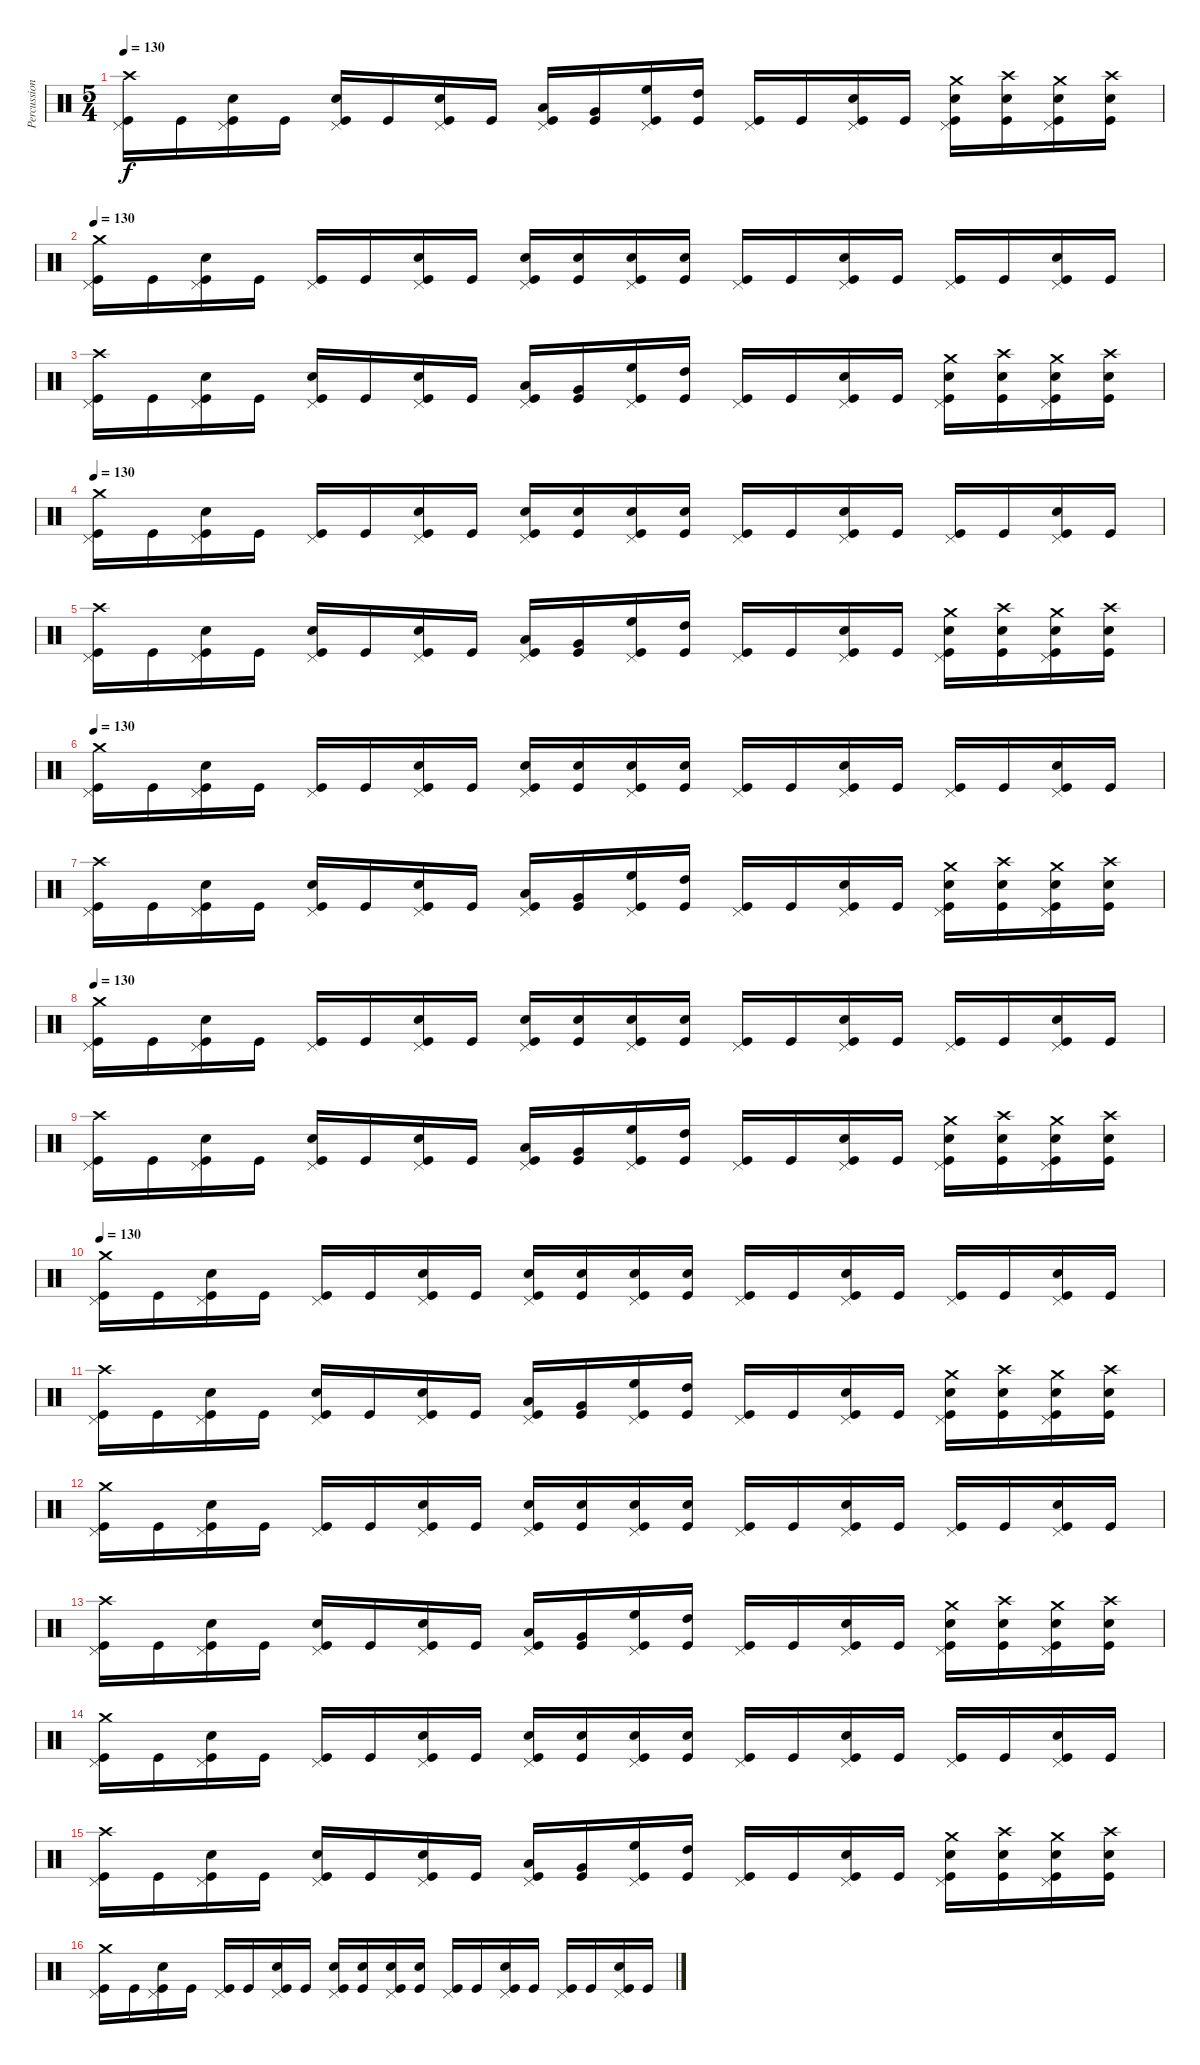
\track ("Percussion" "Percussion") {instrument percussion}
\staff {score}
\articulation defaults
\ts (5 4)
\tempo 130
\clef neutral
\ks c
("Crash high (hit)" "Pedal Hi-Hat (hit)" "Kick (hit)").16{dy f} "Kick (hit)".16 ("Snare (hit) 2" "Pedal Hi-Hat (hit)" "Kick (hit)").16 "Kick (hit)".16 ("Snare (hit) 2" "Pedal Hi-Hat (hit)" "Kick (hit)").16 "Kick (hit)".16 ("Snare (hit) 2" "Pedal Hi-Hat (hit)" "Kick (hit)").16 "Kick (hit)".16 ("Low Floor Tom (hit)" "Pedal Hi-Hat (hit)" "Kick (hit)").16 ("Very Low Tom (hit)" "Kick (hit)").16 ("High Floor Tom (hit)" "Pedal Hi-Hat (hit)" "Kick (hit)").16 ("High Tom (hit)" "Kick (hit)").16 ("Pedal Hi-Hat (hit)" "Kick (hit)").16 "Kick (hit)".16 ("Snare (hit) 2" "Pedal Hi-Hat (hit)" "Kick (hit)").16 "Kick (hit)".16 ("Crash medium (hit)" "Snare (hit) 2" "Pedal Hi-Hat (hit)" "Kick (hit)").16 ("Crash high (hit)" "Snare (hit) 2" "Kick (hit)").16 ("Crash medium (hit)" "Snare (hit) 2" "Pedal Hi-Hat (hit)" "Kick (hit)").16 ("Crash high (hit)" "Snare (hit) 2" "Kick (hit)").16 |
\tempo 130
("Pedal Hi-Hat (hit)" "Crash medium (hit)" "Kick (hit)").16 "Kick (hit)".16 ("Pedal Hi-Hat (hit)" "Snare (hit) 2" "Kick (hit)").16 "Kick (hit)".16 ("Pedal Hi-Hat (hit)" "Kick (hit)").16 "Kick (hit)".16 ("Pedal Hi-Hat (hit)" "Snare (hit) 2" "Kick (hit)").16 "Kick (hit)".16 ("Pedal Hi-Hat (hit)" "Snare (hit) 2" "Kick (hit)").16 ("Snare (hit) 2" "Kick (hit)").16 ("Pedal Hi-Hat (hit)" "Snare (hit) 2" "Kick (hit)").16 ("Snare (hit) 2" "Kick (hit)").16 ("Pedal Hi-Hat (hit)" "Kick (hit)").16 "Kick (hit)".16 ("Pedal Hi-Hat (hit)" "Snare (hit) 2" "Kick (hit)").16 "Kick (hit)".16 ("Pedal Hi-Hat (hit)" "Kick (hit)").16 "Kick (hit)".16 ("Pedal Hi-Hat (hit)" "Snare (hit) 2" "Kick (hit)").16 "Kick (hit)".16 |
("Crash high (hit)" "Pedal Hi-Hat (hit)" "Kick (hit)").16 "Kick (hit)".16 ("Snare (hit) 2" "Pedal Hi-Hat (hit)" "Kick (hit)").16 "Kick (hit)".16 ("Snare (hit) 2" "Pedal Hi-Hat (hit)" "Kick (hit)").16 "Kick (hit)".16 ("Snare (hit) 2" "Pedal Hi-Hat (hit)" "Kick (hit)").16 "Kick (hit)".16 ("Low Floor Tom (hit)" "Pedal Hi-Hat (hit)" "Kick (hit)").16 ("Very Low Tom (hit)" "Kick (hit)").16 ("High Floor Tom (hit)" "Pedal Hi-Hat (hit)" "Kick (hit)").16 ("High Tom (hit)" "Kick (hit)").16 ("Pedal Hi-Hat (hit)" "Kick (hit)").16 "Kick (hit)".16 ("Snare (hit) 2" "Pedal Hi-Hat (hit)" "Kick (hit)").16 "Kick (hit)".16 ("Crash medium (hit)" "Snare (hit) 2" "Pedal Hi-Hat (hit)" "Kick (hit)").16 ("Crash high (hit)" "Snare (hit) 2" "Kick (hit)").16 ("Crash medium (hit)" "Snare (hit) 2" "Pedal Hi-Hat (hit)" "Kick (hit)").16 ("Crash high (hit)" "Snare (hit) 2" "Kick (hit)").16 |
\tempo 130
("Pedal Hi-Hat (hit)" "Crash medium (hit)" "Kick (hit)").16 "Kick (hit)".16 ("Pedal Hi-Hat (hit)" "Snare (hit) 2" "Kick (hit)").16 "Kick (hit)".16 ("Pedal Hi-Hat (hit)" "Kick (hit)").16 "Kick (hit)".16 ("Pedal Hi-Hat (hit)" "Snare (hit) 2" "Kick (hit)").16 "Kick (hit)".16 ("Pedal Hi-Hat (hit)" "Snare (hit) 2" "Kick (hit)").16 ("Snare (hit) 2" "Kick (hit)").16 ("Pedal Hi-Hat (hit)" "Snare (hit) 2" "Kick (hit)").16 ("Snare (hit) 2" "Kick (hit)").16 ("Pedal Hi-Hat (hit)" "Kick (hit)").16 "Kick (hit)".16 ("Pedal Hi-Hat (hit)" "Snare (hit) 2" "Kick (hit)").16 "Kick (hit)".16 ("Pedal Hi-Hat (hit)" "Kick (hit)").16 "Kick (hit)".16 ("Pedal Hi-Hat (hit)" "Snare (hit) 2" "Kick (hit)").16 "Kick (hit)".16 |
("Crash high (hit)" "Pedal Hi-Hat (hit)" "Kick (hit)").16 "Kick (hit)".16 ("Snare (hit) 2" "Pedal Hi-Hat (hit)" "Kick (hit)").16 "Kick (hit)".16 ("Snare (hit) 2" "Pedal Hi-Hat (hit)" "Kick (hit)").16 "Kick (hit)".16 ("Snare (hit) 2" "Pedal Hi-Hat (hit)" "Kick (hit)").16 "Kick (hit)".16 ("Low Floor Tom (hit)" "Pedal Hi-Hat (hit)" "Kick (hit)").16 ("Very Low Tom (hit)" "Kick (hit)").16 ("High Floor Tom (hit)" "Pedal Hi-Hat (hit)" "Kick (hit)").16 ("High Tom (hit)" "Kick (hit)").16 ("Pedal Hi-Hat (hit)" "Kick (hit)").16 "Kick (hit)".16 ("Snare (hit) 2" "Pedal Hi-Hat (hit)" "Kick (hit)").16 "Kick (hit)".16 ("Crash medium (hit)" "Snare (hit) 2" "Pedal Hi-Hat (hit)" "Kick (hit)").16 ("Crash high (hit)" "Snare (hit) 2" "Kick (hit)").16 ("Crash medium (hit)" "Snare (hit) 2" "Pedal Hi-Hat (hit)" "Kick (hit)").16 ("Crash high (hit)" "Snare (hit) 2" "Kick (hit)").16 |
\tempo 130
("Pedal Hi-Hat (hit)" "Crash medium (hit)" "Kick (hit)").16 "Kick (hit)".16 ("Pedal Hi-Hat (hit)" "Snare (hit) 2" "Kick (hit)").16 "Kick (hit)".16 ("Pedal Hi-Hat (hit)" "Kick (hit)").16 "Kick (hit)".16 ("Pedal Hi-Hat (hit)" "Snare (hit) 2" "Kick (hit)").16 "Kick (hit)".16 ("Pedal Hi-Hat (hit)" "Snare (hit) 2" "Kick (hit)").16 ("Snare (hit) 2" "Kick (hit)").16 ("Pedal Hi-Hat (hit)" "Snare (hit) 2" "Kick (hit)").16 ("Snare (hit) 2" "Kick (hit)").16 ("Pedal Hi-Hat (hit)" "Kick (hit)").16 "Kick (hit)".16 ("Pedal Hi-Hat (hit)" "Snare (hit) 2" "Kick (hit)").16 "Kick (hit)".16 ("Pedal Hi-Hat (hit)" "Kick (hit)").16 "Kick (hit)".16 ("Pedal Hi-Hat (hit)" "Snare (hit) 2" "Kick (hit)").16 "Kick (hit)".16 |
("Crash high (hit)" "Pedal Hi-Hat (hit)" "Kick (hit)").16 "Kick (hit)".16 ("Snare (hit) 2" "Pedal Hi-Hat (hit)" "Kick (hit)").16 "Kick (hit)".16 ("Snare (hit) 2" "Pedal Hi-Hat (hit)" "Kick (hit)").16 "Kick (hit)".16 ("Snare (hit) 2" "Pedal Hi-Hat (hit)" "Kick (hit)").16 "Kick (hit)".16 ("Low Floor Tom (hit)" "Pedal Hi-Hat (hit)" "Kick (hit)").16 ("Very Low Tom (hit)" "Kick (hit)").16 ("High Floor Tom (hit)" "Pedal Hi-Hat (hit)" "Kick (hit)").16 ("High Tom (hit)" "Kick (hit)").16 ("Pedal Hi-Hat (hit)" "Kick (hit)").16 "Kick (hit)".16 ("Snare (hit) 2" "Pedal Hi-Hat (hit)" "Kick (hit)").16 "Kick (hit)".16 ("Crash medium (hit)" "Snare (hit) 2" "Pedal Hi-Hat (hit)" "Kick (hit)").16 ("Crash high (hit)" "Snare (hit) 2" "Kick (hit)").16 ("Crash medium (hit)" "Snare (hit) 2" "Pedal Hi-Hat (hit)" "Kick (hit)").16 ("Crash high (hit)" "Snare (hit) 2" "Kick (hit)").16 |
\tempo 130
("Pedal Hi-Hat (hit)" "Crash medium (hit)" "Kick (hit)").16 "Kick (hit)".16 ("Pedal Hi-Hat (hit)" "Snare (hit) 2" "Kick (hit)").16 "Kick (hit)".16 ("Pedal Hi-Hat (hit)" "Kick (hit)").16 "Kick (hit)".16 ("Pedal Hi-Hat (hit)" "Snare (hit) 2" "Kick (hit)").16 "Kick (hit)".16 ("Pedal Hi-Hat (hit)" "Snare (hit) 2" "Kick (hit)").16 ("Snare (hit) 2" "Kick (hit)").16 ("Pedal Hi-Hat (hit)" "Snare (hit) 2" "Kick (hit)").16 ("Snare (hit) 2" "Kick (hit)").16 ("Pedal Hi-Hat (hit)" "Kick (hit)").16 "Kick (hit)".16 ("Pedal Hi-Hat (hit)" "Snare (hit) 2" "Kick (hit)").16 "Kick (hit)".16 ("Pedal Hi-Hat (hit)" "Kick (hit)").16 "Kick (hit)".16 ("Pedal Hi-Hat (hit)" "Snare (hit) 2" "Kick (hit)").16 "Kick (hit)".16 |
("Crash high (hit)" "Pedal Hi-Hat (hit)" "Kick (hit)").16 "Kick (hit)".16 ("Snare (hit) 2" "Pedal Hi-Hat (hit)" "Kick (hit)").16 "Kick (hit)".16 ("Snare (hit) 2" "Pedal Hi-Hat (hit)" "Kick (hit)").16 "Kick (hit)".16 ("Snare (hit) 2" "Pedal Hi-Hat (hit)" "Kick (hit)").16 "Kick (hit)".16 ("Low Floor Tom (hit)" "Pedal Hi-Hat (hit)" "Kick (hit)").16 ("Very Low Tom (hit)" "Kick (hit)").16 ("High Floor Tom (hit)" "Pedal Hi-Hat (hit)" "Kick (hit)").16 ("High Tom (hit)" "Kick (hit)").16 ("Pedal Hi-Hat (hit)" "Kick (hit)").16 "Kick (hit)".16 ("Snare (hit) 2" "Pedal Hi-Hat (hit)" "Kick (hit)").16 "Kick (hit)".16 ("Crash medium (hit)" "Snare (hit) 2" "Pedal Hi-Hat (hit)" "Kick (hit)").16 ("Crash high (hit)" "Snare (hit) 2" "Kick (hit)").16 ("Crash medium (hit)" "Snare (hit) 2" "Pedal Hi-Hat (hit)" "Kick (hit)").16 ("Crash high (hit)" "Snare (hit) 2" "Kick (hit)").16 |
\tempo 130
("Pedal Hi-Hat (hit)" "Crash medium (hit)" "Kick (hit)").16 "Kick (hit)".16 ("Pedal Hi-Hat (hit)" "Snare (hit) 2" "Kick (hit)").16 "Kick (hit)".16 ("Pedal Hi-Hat (hit)" "Kick (hit)").16 "Kick (hit)".16 ("Pedal Hi-Hat (hit)" "Snare (hit) 2" "Kick (hit)").16 "Kick (hit)".16 ("Pedal Hi-Hat (hit)" "Snare (hit) 2" "Kick (hit)").16 ("Snare (hit) 2" "Kick (hit)").16 ("Pedal Hi-Hat (hit)" "Snare (hit) 2" "Kick (hit)").16 ("Snare (hit) 2" "Kick (hit)").16 ("Pedal Hi-Hat (hit)" "Kick (hit)").16 "Kick (hit)".16 ("Pedal Hi-Hat (hit)" "Snare (hit) 2" "Kick (hit)").16 "Kick (hit)".16 ("Pedal Hi-Hat (hit)" "Kick (hit)").16 "Kick (hit)".16 ("Pedal Hi-Hat (hit)" "Snare (hit) 2" "Kick (hit)").16 "Kick (hit)".16 |
("Crash high (hit)" "Pedal Hi-Hat (hit)" "Kick (hit)").16 "Kick (hit)".16 ("Snare (hit) 2" "Pedal Hi-Hat (hit)" "Kick (hit)").16 "Kick (hit)".16 ("Snare (hit) 2" "Pedal Hi-Hat (hit)" "Kick (hit)").16 "Kick (hit)".16 ("Snare (hit) 2" "Pedal Hi-Hat (hit)" "Kick (hit)").16 "Kick (hit)".16 ("Low Floor Tom (hit)" "Pedal Hi-Hat (hit)" "Kick (hit)").16 ("Very Low Tom (hit)" "Kick (hit)").16 ("High Floor Tom (hit)" "Pedal Hi-Hat (hit)" "Kick (hit)").16 ("High Tom (hit)" "Kick (hit)").16 ("Pedal Hi-Hat (hit)" "Kick (hit)").16 "Kick (hit)".16 ("Snare (hit) 2" "Pedal Hi-Hat (hit)" "Kick (hit)").16 "Kick (hit)".16 ("Crash medium (hit)" "Snare (hit) 2" "Pedal Hi-Hat (hit)" "Kick (hit)").16 ("Crash high (hit)" "Snare (hit) 2" "Kick (hit)").16 ("Crash medium (hit)" "Snare (hit) 2" "Pedal Hi-Hat (hit)" "Kick (hit)").16 ("Crash high (hit)" "Snare (hit) 2" "Kick (hit)").16 |
("Pedal Hi-Hat (hit)" "Crash medium (hit)" "Kick (hit)").16 "Kick (hit)".16 ("Pedal Hi-Hat (hit)" "Snare (hit) 2" "Kick (hit)").16 "Kick (hit)".16 ("Pedal Hi-Hat (hit)" "Kick (hit)").16 "Kick (hit)".16 ("Pedal Hi-Hat (hit)" "Snare (hit) 2" "Kick (hit)").16 "Kick (hit)".16 ("Pedal Hi-Hat (hit)" "Snare (hit) 2" "Kick (hit)").16 ("Snare (hit) 2" "Kick (hit)").16 ("Pedal Hi-Hat (hit)" "Snare (hit) 2" "Kick (hit)").16 ("Snare (hit) 2" "Kick (hit)").16 ("Pedal Hi-Hat (hit)" "Kick (hit)").16 "Kick (hit)".16 ("Pedal Hi-Hat (hit)" "Snare (hit) 2" "Kick (hit)").16 "Kick (hit)".16 ("Pedal Hi-Hat (hit)" "Kick (hit)").16 "Kick (hit)".16 ("Pedal Hi-Hat (hit)" "Snare (hit) 2" "Kick (hit)").16 "Kick (hit)".16 |
("Crash high (hit)" "Pedal Hi-Hat (hit)" "Kick (hit)").16 "Kick (hit)".16 ("Snare (hit) 2" "Pedal Hi-Hat (hit)" "Kick (hit)").16 "Kick (hit)".16 ("Snare (hit) 2" "Pedal Hi-Hat (hit)" "Kick (hit)").16 "Kick (hit)".16 ("Snare (hit) 2" "Pedal Hi-Hat (hit)" "Kick (hit)").16 "Kick (hit)".16 ("Low Floor Tom (hit)" "Pedal Hi-Hat (hit)" "Kick (hit)").16 ("Very Low Tom (hit)" "Kick (hit)").16 ("High Floor Tom (hit)" "Pedal Hi-Hat (hit)" "Kick (hit)").16 ("High Tom (hit)" "Kick (hit)").16 ("Pedal Hi-Hat (hit)" "Kick (hit)").16 "Kick (hit)".16 ("Snare (hit) 2" "Pedal Hi-Hat (hit)" "Kick (hit)").16 "Kick (hit)".16 ("Crash medium (hit)" "Snare (hit) 2" "Pedal Hi-Hat (hit)" "Kick (hit)").16 ("Crash high (hit)" "Snare (hit) 2" "Kick (hit)").16 ("Crash medium (hit)" "Snare (hit) 2" "Pedal Hi-Hat (hit)" "Kick (hit)").16 ("Crash high (hit)" "Snare (hit) 2" "Kick (hit)").16 |
("Pedal Hi-Hat (hit)" "Crash medium (hit)" "Kick (hit)").16 "Kick (hit)".16 ("Pedal Hi-Hat (hit)" "Snare (hit) 2" "Kick (hit)").16 "Kick (hit)".16 ("Pedal Hi-Hat (hit)" "Kick (hit)").16 "Kick (hit)".16 ("Pedal Hi-Hat (hit)" "Snare (hit) 2" "Kick (hit)").16 "Kick (hit)".16 ("Pedal Hi-Hat (hit)" "Snare (hit) 2" "Kick (hit)").16 ("Snare (hit) 2" "Kick (hit)").16 ("Pedal Hi-Hat (hit)" "Snare (hit) 2" "Kick (hit)").16 ("Snare (hit) 2" "Kick (hit)").16 ("Pedal Hi-Hat (hit)" "Kick (hit)").16 "Kick (hit)".16 ("Pedal Hi-Hat (hit)" "Snare (hit) 2" "Kick (hit)").16 "Kick (hit)".16 ("Pedal Hi-Hat (hit)" "Kick (hit)").16 "Kick (hit)".16 ("Pedal Hi-Hat (hit)" "Snare (hit) 2" "Kick (hit)").16 "Kick (hit)".16 |
("Crash high (hit)" "Pedal Hi-Hat (hit)" "Kick (hit)").16 "Kick (hit)".16 ("Snare (hit) 2" "Pedal Hi-Hat (hit)" "Kick (hit)").16 "Kick (hit)".16 ("Snare (hit) 2" "Pedal Hi-Hat (hit)" "Kick (hit)").16 "Kick (hit)".16 ("Snare (hit) 2" "Pedal Hi-Hat (hit)" "Kick (hit)").16 "Kick (hit)".16 ("Low Floor Tom (hit)" "Pedal Hi-Hat (hit)" "Kick (hit)").16 ("Very Low Tom (hit)" "Kick (hit)").16 ("High Floor Tom (hit)" "Pedal Hi-Hat (hit)" "Kick (hit)").16 ("High Tom (hit)" "Kick (hit)").16 ("Pedal Hi-Hat (hit)" "Kick (hit)").16 "Kick (hit)".16 ("Snare (hit) 2" "Pedal Hi-Hat (hit)" "Kick (hit)").16 "Kick (hit)".16 ("Crash medium (hit)" "Snare (hit) 2" "Pedal Hi-Hat (hit)" "Kick (hit)").16 ("Crash high (hit)" "Snare (hit) 2" "Kick (hit)").16 ("Crash medium (hit)" "Snare (hit) 2" "Pedal Hi-Hat (hit)" "Kick (hit)").16 ("Crash high (hit)" "Snare (hit) 2" "Kick (hit)").16 |
("Pedal Hi-Hat (hit)" "Crash medium (hit)" "Kick (hit)").16 "Kick (hit)".16 ("Pedal Hi-Hat (hit)" "Snare (hit) 2" "Kick (hit)").16 "Kick (hit)".16 ("Pedal Hi-Hat (hit)" "Kick (hit)").16 "Kick (hit)".16 ("Pedal Hi-Hat (hit)" "Snare (hit) 2" "Kick (hit)").16 "Kick (hit)".16 ("Pedal Hi-Hat (hit)" "Snare (hit) 2" "Kick (hit)").16 ("Snare (hit) 2" "Kick (hit)").16 ("Pedal Hi-Hat (hit)" "Snare (hit) 2" "Kick (hit)").16 ("Snare (hit) 2" "Kick (hit)").16 ("Pedal Hi-Hat (hit)" "Kick (hit)").16 "Kick (hit)".16 ("Pedal Hi-Hat (hit)" "Snare (hit) 2" "Kick (hit)").16 "Kick (hit)".16 ("Pedal Hi-Hat (hit)" "Kick (hit)").16 "Kick (hit)".16 ("Pedal Hi-Hat (hit)" "Snare (hit) 2" "Kick (hit)").16 "Kick (hit)".16
